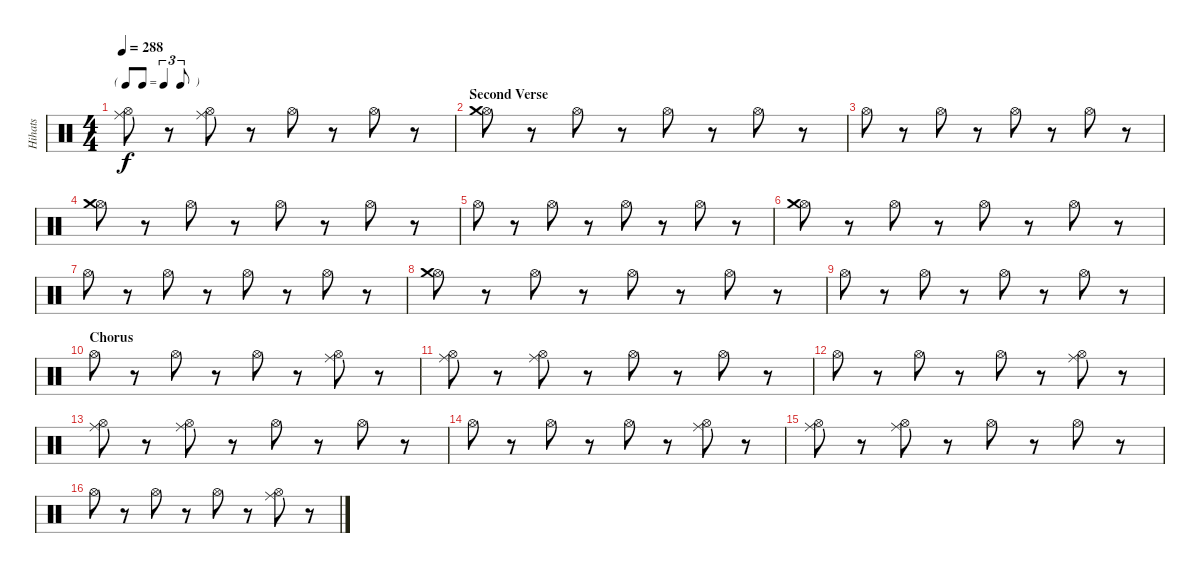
\track ("Hihats" "Hihats") {instrument percussion}
\staff {score}
\articulation defaults
\ts (4 4)
\tf triplet8th
\tempo 288
\clef neutral
\ks c
("Hi-Hat (open)" "Ride (middle)").8{dy f} r.8 ("Hi-Hat (open)" "Ride (middle)").8 r.8 "Hi-Hat (open)".8 r.8 "Hi-Hat (open)".8 r.8 |
\section ("" "Second Verse")
("Hi-Hat (open)" "Crash medium (hit)").8 r.8 "Hi-Hat (open)".8 r.8 "Hi-Hat (open)".8 r.8 "Hi-Hat (open)".8 r.8 |
"Hi-Hat (open)".8 r.8 "Hi-Hat (open)".8 r.8 "Hi-Hat (open)".8 r.8 "Hi-Hat (open)".8 r.8 |
("Hi-Hat (open)" "Crash medium (hit)").8 r.8 "Hi-Hat (open)".8 r.8 "Hi-Hat (open)".8 r.8 "Hi-Hat (open)".8 r.8 |
"Hi-Hat (open)".8 r.8 "Hi-Hat (open)".8 r.8 "Hi-Hat (open)".8 r.8 "Hi-Hat (open)".8 r.8 |
("Hi-Hat (open)" "Crash medium (hit)").8 r.8 "Hi-Hat (open)".8 r.8 "Hi-Hat (open)".8 r.8 "Hi-Hat (open)".8 r.8 |
"Hi-Hat (open)".8 r.8 "Hi-Hat (open)".8 r.8 "Hi-Hat (open)".8 r.8 "Hi-Hat (open)".8 r.8 |
("Hi-Hat (open)" "Crash medium (hit)").8 r.8 "Hi-Hat (open)".8 r.8 "Hi-Hat (open)".8 r.8 "Hi-Hat (open)".8 r.8 |
"Hi-Hat (open)".8 r.8 "Hi-Hat (open)".8 r.8 "Hi-Hat (open)".8 r.8 "Hi-Hat (open)".8 r.8 |
\section ("" "Chorus")
"Hi-Hat (open)".8 r.8 "Hi-Hat (open)".8 r.8 "Hi-Hat (open)".8 r.8 ("Hi-Hat (open)" "Ride (middle)").8 r.8 |
("Hi-Hat (open)" "Ride (middle)").8 r.8 ("Hi-Hat (open)" "Ride (middle)").8 r.8 "Hi-Hat (open)".8 r.8 "Hi-Hat (open)".8 r.8 |
"Hi-Hat (open)".8 r.8 "Hi-Hat (open)".8 r.8 "Hi-Hat (open)".8 r.8 ("Hi-Hat (open)" "Ride (middle)").8 r.8 |
("Hi-Hat (open)" "Ride (middle)").8 r.8 ("Hi-Hat (open)" "Ride (middle)").8 r.8 "Hi-Hat (open)".8 r.8 "Hi-Hat (open)".8 r.8 |
"Hi-Hat (open)".8 r.8 "Hi-Hat (open)".8 r.8 "Hi-Hat (open)".8 r.8 ("Hi-Hat (open)" "Ride (middle)").8 r.8 |
("Hi-Hat (open)" "Ride (middle)").8 r.8 ("Hi-Hat (open)" "Ride (middle)").8 r.8 "Hi-Hat (open)".8 r.8 "Hi-Hat (open)".8 r.8 |
"Hi-Hat (open)".8 r.8 "Hi-Hat (open)".8 r.8 "Hi-Hat (open)".8 r.8 ("Hi-Hat (open)" "Ride (middle)").8 r.8
